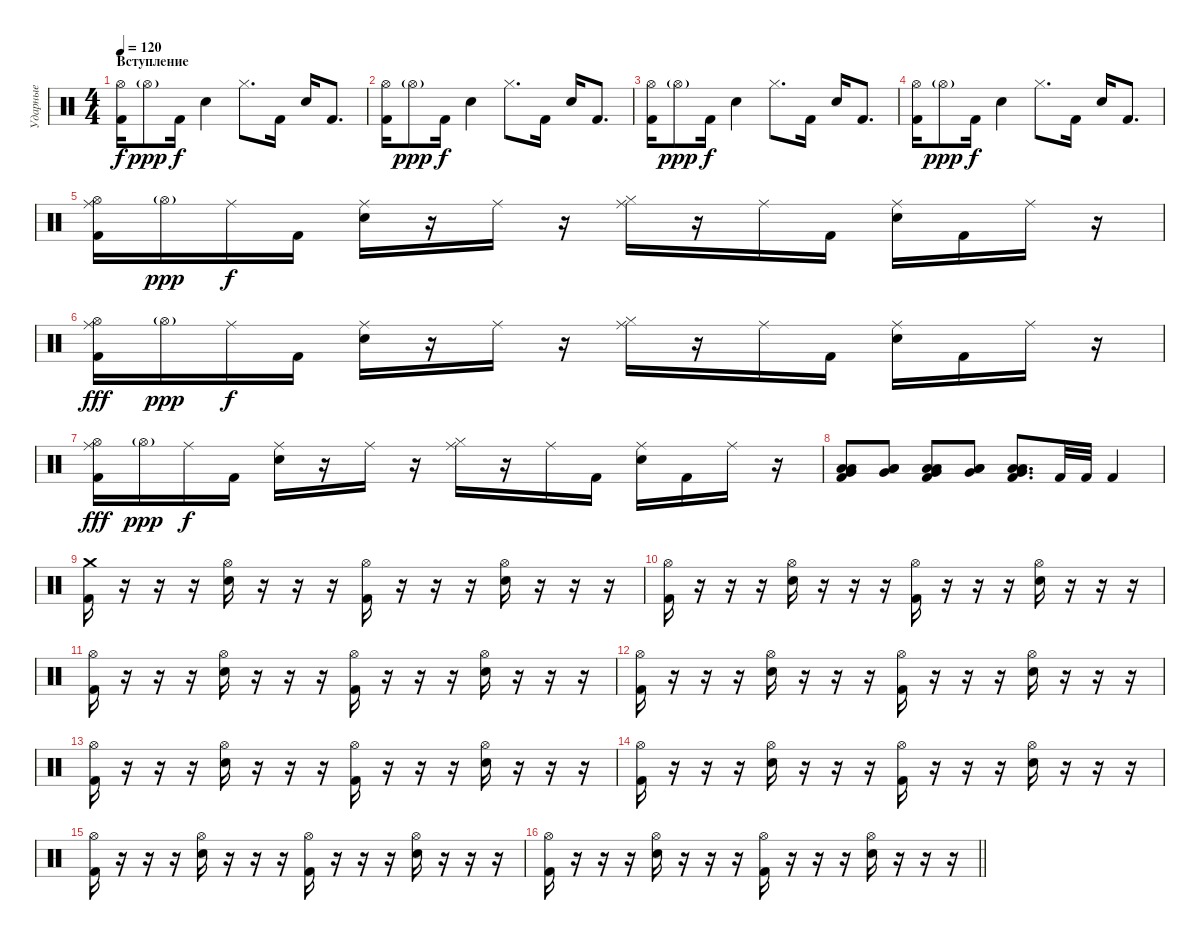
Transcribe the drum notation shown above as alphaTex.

\track ("Ударные" "Ударные") {instrument percussion}
\staff {score}
\articulation defaults
\ts (4 4)
\section ("" "Вступление")
\tempo 120
\clef neutral
\ks c
("Hi-Hat (open)" "Kick (hit) 2").16{dy f} "Hi-Hat (open)"{g}.8{dy ppp volume 0} "Kick (hit) 2".16{dy f volume 11} "Electric Snare (hit)".4 "Hi-Hat (closed)".8{d} "Kick (hit) 2".16 "Electric Snare (hit)".16 "Kick (hit) 2".8{d} |
("Hi-Hat (open)" "Kick (hit) 2").16 "Hi-Hat (open)"{g}.8{dy ppp volume 0} "Kick (hit) 2".16{dy f volume 11} "Electric Snare (hit)".4 "Hi-Hat (closed)".8{d} "Kick (hit) 2".16 "Electric Snare (hit)".16 "Kick (hit) 2".8{d} |
("Hi-Hat (open)" "Kick (hit) 2").16 "Hi-Hat (open)"{g}.8{dy ppp volume 0} "Kick (hit) 2".16{dy f volume 11} "Electric Snare (hit)".4 "Hi-Hat (closed)".8{d} "Kick (hit) 2".16 "Electric Snare (hit)".16 "Kick (hit) 2".8{d} |
("Hi-Hat (open)" "Kick (hit) 2").16 "Hi-Hat (open)"{g}.8{dy ppp volume 0} "Kick (hit) 2".16{dy f volume 11} "Electric Snare (hit)".4 "Hi-Hat (closed)".8{d} "Kick (hit) 2".16 "Electric Snare (hit)".16 "Kick (hit) 2".8{d} |
("Hi-Hat (open)" "Ride (middle)" "Kick (hit) 2").16 "Hi-Hat (open)"{g}.16{dy ppp volume 0} "Ride (middle)".16{dy f volume 11} "Kick (hit) 2".16 ("Ride (middle)" "Electric Snare (hit)").16 r.16 "Ride (middle)".16 r.16 ("Hi-Hat (closed)" "Ride (middle)").16 r.16 "Ride (middle)".16 "Kick (hit) 2".16 ("Ride (middle)" "Electric Snare (hit)").16 "Kick (hit) 2".16 "Ride (middle)".16 r.16 |
("Hi-Hat (open)" "Ride (middle)" "Kick (hit) 2").16{dy fff} "Hi-Hat (open)"{g}.16{dy ppp volume 0} "Ride (middle)".16{dy f volume 11} "Kick (hit) 2".16 ("Ride (middle)" "Electric Snare (hit)").16 r.16 "Ride (middle)".16 r.16 ("Hi-Hat (closed)" "Ride (middle)").16 r.16 "Ride (middle)".16 "Kick (hit) 2".16 ("Ride (middle)" "Electric Snare (hit)").16 "Kick (hit) 2".16 "Ride (middle)".16 r.16 |
("Hi-Hat (open)" "Ride (middle)" "Kick (hit) 2").16{dy fff} "Hi-Hat (open)"{g}.16{dy ppp volume 0} "Ride (middle)".16{dy f volume 11} "Kick (hit) 2".16 ("Ride (middle)" "Electric Snare (hit)").16 r.16 "Ride (middle)".16 r.16 ("Hi-Hat (closed)" "Ride (middle)").16 r.16 "Ride (middle)".16 "Kick (hit) 2".16 ("Ride (middle)" "Electric Snare (hit)").16 "Kick (hit) 2".16 "Ride (middle)".16 r.16 |
("Low Tom (hit)" "Low Floor Tom (hit)" "Very Low Tom (hit)" "Kick (hit) 2").8 ("Low Tom (hit)" "Low Floor Tom (hit)" "Very Low Tom (hit)").8 ("Low Tom (hit)" "Low Floor Tom (hit)" "Very Low Tom (hit)" "Kick (hit) 2").8 ("Low Tom (hit)" "Low Floor Tom (hit)" "Very Low Tom (hit)").8 ("Low Tom (hit)" "Low Floor Tom (hit)" "Very Low Tom (hit)" "Kick (hit) 2").8{d} "Kick (hit) 2".32 "Kick (hit) 2".32 "Kick (hit) 2".4 |
("Crash medium (hit)" "Kick (hit) 2").16{volume 13} r.16 r.16 r.16 ("Hi-Hat (open)" "Electric Snare (hit)").16 r.16 r.16 r.16 ("Hi-Hat (open)" "Kick (hit) 2").16 r.16 r.16 r.16 ("Hi-Hat (open)" "Electric Snare (hit)").16 r.16 r.16 r.16 |
("Hi-Hat (open)" "Kick (hit) 2").16 r.16 r.16 r.16 ("Hi-Hat (open)" "Electric Snare (hit)").16 r.16 r.16 r.16 ("Hi-Hat (open)" "Kick (hit) 2").16 r.16 r.16 r.16 ("Hi-Hat (open)" "Electric Snare (hit)").16 r.16 r.16 r.16 |
("Hi-Hat (open)" "Kick (hit) 2").16 r.16 r.16 r.16 ("Hi-Hat (open)" "Electric Snare (hit)").16 r.16 r.16 r.16 ("Hi-Hat (open)" "Kick (hit) 2").16 r.16 r.16 r.16 ("Hi-Hat (open)" "Electric Snare (hit)").16 r.16 r.16 r.16 |
("Hi-Hat (open)" "Kick (hit) 2").16 r.16 r.16 r.16 ("Hi-Hat (open)" "Electric Snare (hit)").16 r.16 r.16 r.16 ("Hi-Hat (open)" "Kick (hit) 2").16 r.16 r.16 r.16 ("Hi-Hat (open)" "Electric Snare (hit)").16 r.16 r.16 r.16 |
("Hi-Hat (open)" "Kick (hit) 2").16 r.16 r.16 r.16 ("Hi-Hat (open)" "Electric Snare (hit)").16 r.16 r.16 r.16 ("Hi-Hat (open)" "Kick (hit) 2").16 r.16 r.16 r.16 ("Hi-Hat (open)" "Electric Snare (hit)").16 r.16 r.16 r.16 |
("Hi-Hat (open)" "Kick (hit) 2").16 r.16 r.16 r.16 ("Hi-Hat (open)" "Electric Snare (hit)").16 r.16 r.16 r.16 ("Hi-Hat (open)" "Kick (hit) 2").16 r.16 r.16 r.16 ("Hi-Hat (open)" "Electric Snare (hit)").16 r.16 r.16 r.16 |
("Hi-Hat (open)" "Kick (hit) 2").16 r.16 r.16 r.16 ("Hi-Hat (open)" "Electric Snare (hit)").16 r.16 r.16 r.16 ("Hi-Hat (open)" "Kick (hit) 2").16 r.16 r.16 r.16 ("Hi-Hat (open)" "Electric Snare (hit)").16 r.16 r.16 r.16 |
\barLineRight lightlight
("Hi-Hat (open)" "Kick (hit) 2").16 r.16 r.16 r.16 ("Hi-Hat (open)" "Electric Snare (hit)").16 r.16 r.16 r.16 ("Hi-Hat (open)" "Kick (hit) 2").16 r.16 r.16 r.16 ("Hi-Hat (open)" "Electric Snare (hit)").16 r.16 r.16 r.16
